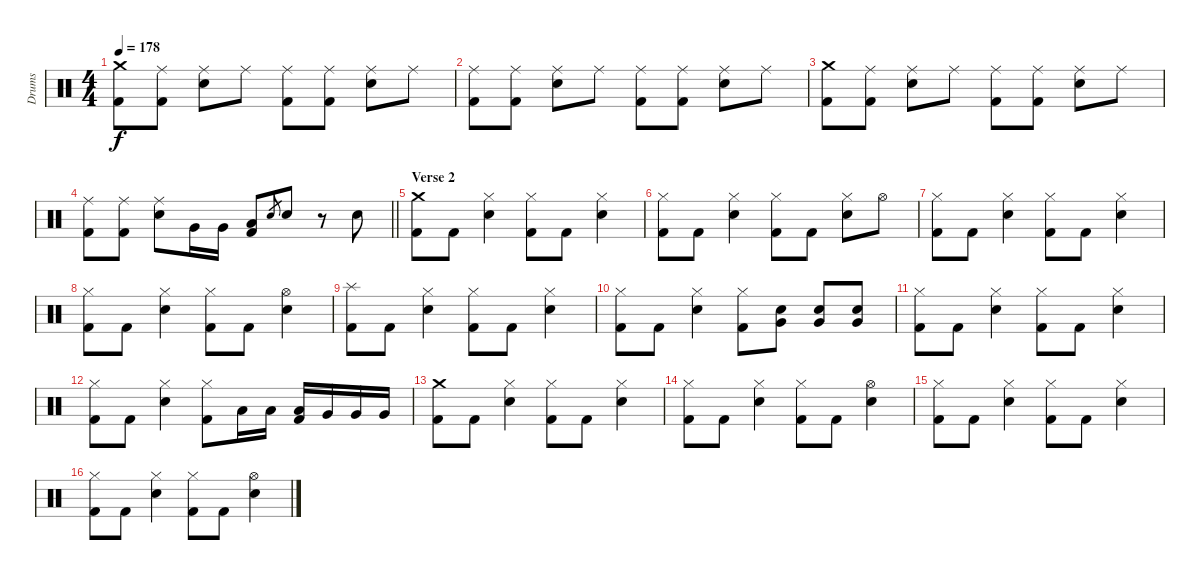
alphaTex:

\track ("Drums" "Drums") {instrument percussion}
\staff {score}
\articulation defaults
\ts (4 4)
\tempo 178
\clef neutral
\ks c
("Crash medium (hit)" "Kick (hit) 2").8{dy f} ("Ride (middle)" "Kick (hit) 2").8 ("Ride (middle)" "Electric Snare (hit)").8 "Ride (middle)".8 ("Ride (middle)" "Kick (hit) 2").8 ("Ride (middle)" "Kick (hit) 2").8 ("Ride (middle)" "Electric Snare (hit)").8 "Ride (middle)".8 |
("Ride (middle)" "Kick (hit) 2").8 ("Ride (middle)" "Kick (hit) 2").8 ("Ride (middle)" "Electric Snare (hit)").8 "Ride (middle)".8 ("Ride (middle)" "Kick (hit) 2").8 ("Ride (middle)" "Kick (hit) 2").8 ("Ride (middle)" "Electric Snare (hit)").8 "Ride (middle)".8 |
("Crash medium (hit)" "Kick (hit) 2").8 ("Ride (middle)" "Kick (hit) 2").8 ("Ride (middle)" "Electric Snare (hit)").8 "Ride (middle)".8 ("Ride (middle)" "Kick (hit) 2").8 ("Ride (middle)" "Kick (hit) 2").8 ("Ride (middle)" "Electric Snare (hit)").8 "Ride (middle)".8 |
\barLineRight lightlight
("Ride (middle)" "Kick (hit) 2").8 ("Ride (middle)" "Kick (hit) 2").8 ("Ride (middle)" "Electric Snare (hit)").8 "Very Low Tom (hit)".16 "Very Low Tom (hit)".16 ("Low Floor Tom (hit)" "Kick (hit) 2").8 "Electric Snare (hit)".8{gr} "Electric Snare (hit)".8 r.8 "Electric Snare (hit)".8 |
\section ("" "Verse 2")
("Crash medium (hit)" "Kick (hit) 2").8 "Kick (hit) 2".8 ("Hi-Hat (closed)" "Electric Snare (hit)").4 ("Hi-Hat (closed)" "Kick (hit) 2").8 "Kick (hit) 2".8 ("Hi-Hat (closed)" "Electric Snare (hit)").4 |
("Hi-Hat (closed)" "Kick (hit) 2").8 "Kick (hit) 2".8 ("Hi-Hat (closed)" "Electric Snare (hit)").4 ("Hi-Hat (closed)" "Kick (hit) 2").8 "Kick (hit) 2".8 ("Hi-Hat (closed)" "Electric Snare (hit)").8 "Hi-Hat (open)".8 |
("Hi-Hat (closed)" "Kick (hit) 2").8 "Kick (hit) 2".8 ("Hi-Hat (closed)" "Electric Snare (hit)").4 ("Hi-Hat (closed)" "Kick (hit) 2").8 "Kick (hit) 2".8 ("Hi-Hat (closed)" "Electric Snare (hit)").4 |
("Hi-Hat (closed)" "Kick (hit) 2").8 "Kick (hit) 2".8 ("Hi-Hat (closed)" "Electric Snare (hit)").4 ("Hi-Hat (closed)" "Kick (hit) 2").8 "Kick (hit) 2".8 ("Hi-Hat (open)" "Electric Snare (hit)").4 |
("Splash (hit)" "Kick (hit) 2").8 "Kick (hit) 2".8 ("Hi-Hat (closed)" "Electric Snare (hit)").4 ("Hi-Hat (closed)" "Kick (hit) 2").8 "Kick (hit) 2".8 ("Hi-Hat (closed)" "Electric Snare (hit)").4 |
("Hi-Hat (closed)" "Kick (hit) 2").8 "Kick (hit) 2".8 ("Hi-Hat (closed)" "Electric Snare (hit)").4 ("Hi-Hat (closed)" "Kick (hit) 2").8 ("Very Low Tom (hit)" "Electric Snare (hit)").8 ("Very Low Tom (hit)" "Electric Snare (hit)").8 ("Very Low Tom (hit)" "Electric Snare (hit)").8 |
("Hi-Hat (closed)" "Kick (hit) 2").8 "Kick (hit) 2".8 ("Hi-Hat (closed)" "Electric Snare (hit)").4 ("Hi-Hat (closed)" "Kick (hit) 2").8 "Kick (hit) 2".8 ("Hi-Hat (closed)" "Electric Snare (hit)").4 |
("Hi-Hat (closed)" "Kick (hit) 2").8 "Kick (hit) 2".8 ("Hi-Hat (closed)" "Electric Snare (hit)").4 ("Hi-Hat (closed)" "Kick (hit) 2").8 "Low Tom (hit)".16 "Low Tom (hit)".16 ("Low Tom (hit)" "Kick (hit) 2").16 "Very Low Tom (hit)".16 "Very Low Tom (hit)".16 "Very Low Tom (hit)".16 |
("Crash medium (hit)" "Kick (hit) 2").8 "Kick (hit) 2".8 ("Hi-Hat (closed)" "Electric Snare (hit)").4 ("Hi-Hat (closed)" "Kick (hit) 2").8 "Kick (hit) 2".8 ("Hi-Hat (closed)" "Electric Snare (hit)").4 |
("Hi-Hat (closed)" "Kick (hit) 2").8 "Kick (hit) 2".8 ("Hi-Hat (closed)" "Electric Snare (hit)").4 ("Hi-Hat (closed)" "Kick (hit) 2").8 "Kick (hit) 2".8 ("Hi-Hat (open)" "Electric Snare (hit)").4 |
("Hi-Hat (closed)" "Kick (hit) 2").8 "Kick (hit) 2".8 ("Hi-Hat (closed)" "Electric Snare (hit)").4 ("Hi-Hat (closed)" "Kick (hit) 2").8 "Kick (hit) 2".8 ("Hi-Hat (closed)" "Electric Snare (hit)").4 |
("Hi-Hat (closed)" "Kick (hit) 2").8 "Kick (hit) 2".8 ("Hi-Hat (closed)" "Electric Snare (hit)").4 ("Hi-Hat (closed)" "Kick (hit) 2").8 "Kick (hit) 2".8 ("Hi-Hat (open)" "Electric Snare (hit)").4
